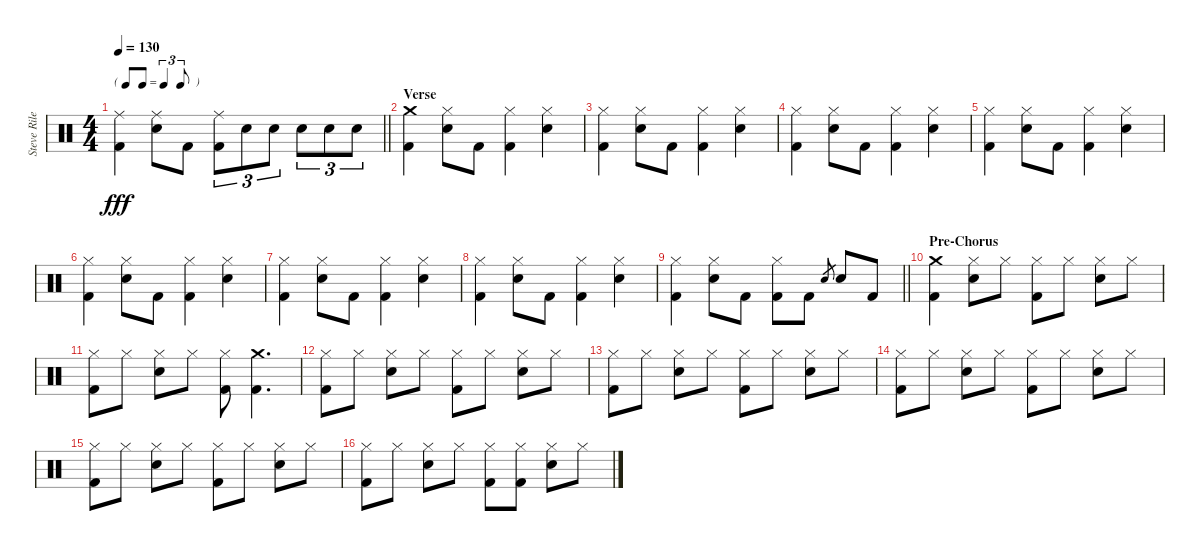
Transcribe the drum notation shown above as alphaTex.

\track ("Steve Riley - Drums" "Steve Rile") {instrument percussion}
\staff {score}
\articulation defaults
\ts (4 4)
\tf triplet8th
\tempo 130
\clef neutral
\barLineRight lightlight
\ks c
("Ride (middle)" "Kick (hit) 2").4{dy fff} ("Ride (middle)" "Electric Snare (hit)").8 "Kick (hit) 2".8 ("Ride (middle)" "Kick (hit) 2").8{tu (3 2)} "Electric Snare (hit)".8{tu (3 2)} "Electric Snare (hit)".8{tu (3 2)} "Electric Snare (hit)".8{tu (3 2)} "Electric Snare (hit)".8{tu (3 2)} "Electric Snare (hit)".8{tu (3 2)} |
\section ("" "Verse")
("Crash medium (hit)" "Kick (hit) 2").4 ("Hi-Hat (closed)" "Electric Snare (hit)").8 "Kick (hit) 2".8 ("Hi-Hat (closed)" "Kick (hit) 2").4 ("Hi-Hat (closed)" "Electric Snare (hit)").4 |
("Hi-Hat (closed)" "Kick (hit) 2").4 ("Hi-Hat (closed)" "Electric Snare (hit)").8 "Kick (hit) 2".8 ("Hi-Hat (closed)" "Kick (hit) 2").4 ("Hi-Hat (closed)" "Electric Snare (hit)").4 |
("Hi-Hat (closed)" "Kick (hit) 2").4 ("Hi-Hat (closed)" "Electric Snare (hit)").8 "Kick (hit) 2".8 ("Hi-Hat (closed)" "Kick (hit) 2").4 ("Hi-Hat (closed)" "Electric Snare (hit)").4 |
("Hi-Hat (closed)" "Kick (hit) 2").4 ("Hi-Hat (closed)" "Electric Snare (hit)").8 "Kick (hit) 2".8 ("Hi-Hat (closed)" "Kick (hit) 2").4 ("Hi-Hat (closed)" "Electric Snare (hit)").4 |
("Hi-Hat (closed)" "Kick (hit) 2").4 ("Hi-Hat (closed)" "Electric Snare (hit)").8 "Kick (hit) 2".8 ("Hi-Hat (closed)" "Kick (hit) 2").4 ("Hi-Hat (closed)" "Electric Snare (hit)").4 |
("Hi-Hat (closed)" "Kick (hit) 2").4 ("Hi-Hat (closed)" "Electric Snare (hit)").8 "Kick (hit) 2".8 ("Hi-Hat (closed)" "Kick (hit) 2").4 ("Hi-Hat (closed)" "Electric Snare (hit)").4 |
("Hi-Hat (closed)" "Kick (hit) 2").4 ("Hi-Hat (closed)" "Electric Snare (hit)").8 "Kick (hit) 2".8 ("Hi-Hat (closed)" "Kick (hit) 2").4 ("Hi-Hat (closed)" "Electric Snare (hit)").4 |
\barLineRight lightlight
("Hi-Hat (closed)" "Kick (hit) 2").4 ("Hi-Hat (closed)" "Electric Snare (hit)").8 "Kick (hit) 2".8 ("Hi-Hat (closed)" "Kick (hit) 2").8 "Kick (hit) 2".8 "Electric Snare (hit)".8{gr} "Electric Snare (hit)".8 "Kick (hit) 2".8 |
\section ("" "Pre-Chorus")
("Crash medium (hit)" "Kick (hit) 2").4 ("Hi-Hat (closed)" "Electric Snare (hit)").8 "Hi-Hat (closed)".8 ("Hi-Hat (closed)" "Kick (hit) 2").8 "Hi-Hat (closed)".8 ("Hi-Hat (closed)" "Electric Snare (hit)").8 "Hi-Hat (closed)".8 |
("Hi-Hat (closed)" "Kick (hit) 2").8 "Hi-Hat (closed)".8 ("Hi-Hat (closed)" "Electric Snare (hit)").8 "Hi-Hat (closed)".8 ("Hi-Hat (closed)" "Kick (hit) 2").8 ("Crash medium (hit)" "Kick (hit) 2").4{d} |
("Hi-Hat (closed)" "Kick (hit) 2").8 "Hi-Hat (closed)".8 ("Hi-Hat (closed)" "Electric Snare (hit)").8 "Hi-Hat (closed)".8 ("Hi-Hat (closed)" "Kick (hit) 2").8 "Hi-Hat (closed)".8 ("Hi-Hat (closed)" "Electric Snare (hit)").8 "Hi-Hat (closed)".8 |
("Hi-Hat (closed)" "Kick (hit) 2").8 "Hi-Hat (closed)".8 ("Hi-Hat (closed)" "Electric Snare (hit)").8 "Hi-Hat (closed)".8 ("Hi-Hat (closed)" "Kick (hit) 2").8 "Hi-Hat (closed)".8 ("Hi-Hat (closed)" "Electric Snare (hit)").8 "Hi-Hat (closed)".8 |
("Hi-Hat (closed)" "Kick (hit) 2").8 "Hi-Hat (closed)".8 ("Hi-Hat (closed)" "Electric Snare (hit)").8 "Hi-Hat (closed)".8 ("Hi-Hat (closed)" "Kick (hit) 2").8 "Hi-Hat (closed)".8 ("Hi-Hat (closed)" "Electric Snare (hit)").8 "Hi-Hat (closed)".8 |
("Hi-Hat (closed)" "Kick (hit) 2").8 "Hi-Hat (closed)".8 ("Hi-Hat (closed)" "Electric Snare (hit)").8 "Hi-Hat (closed)".8 ("Hi-Hat (closed)" "Kick (hit) 2").8 "Hi-Hat (closed)".8 ("Hi-Hat (closed)" "Electric Snare (hit)").8 "Hi-Hat (closed)".8 |
("Hi-Hat (closed)" "Kick (hit) 2").8 "Hi-Hat (closed)".8 ("Hi-Hat (closed)" "Electric Snare (hit)").8 "Hi-Hat (closed)".8 ("Hi-Hat (closed)" "Kick (hit) 2").8 ("Hi-Hat (closed)" "Kick (hit) 2").8 ("Hi-Hat (closed)" "Electric Snare (hit)").8 "Hi-Hat (closed)".8
